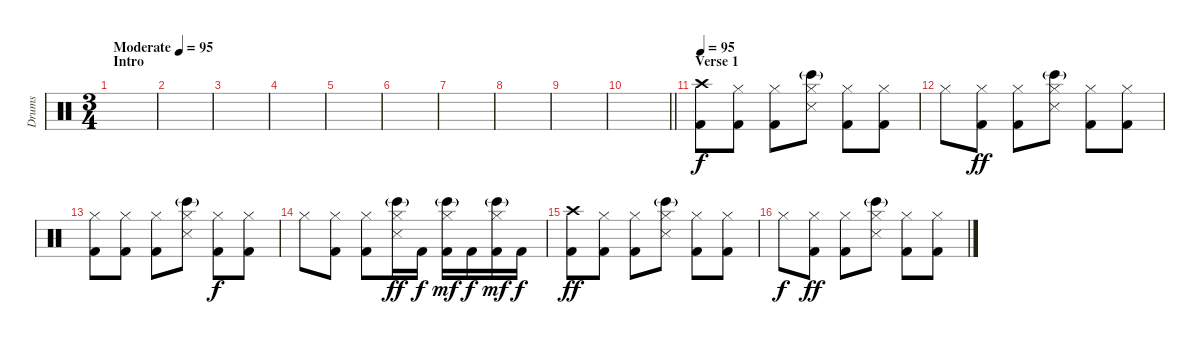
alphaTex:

\track ("Drums" "Drums") {instrument percussion}
\staff {score}
\articulation defaults
\ts (3 4)
\section ("" "Intro")
\tempo (95 "Moderate")
\tempo 80
\tempo (95 "Moderate")
\clef neutral
\ks c
|
|
|
|
|
|
|
|
|
\barLineRight lightlight
|
\section ("" "Verse 1")
\tempo 95
("Crash high (hit)" "Kick (hit) 2").8 ("Hi-Hat (closed)" "Kick (hit) 2").8 ("Hi-Hat (closed)" "Kick (hit) 2").8 ("Hi-Hat (closed)" "Bongo High (hit)"{g} "Snare (side stick) 3").8 ("Hi-Hat (closed)" "Kick (hit) 2").8 ("Hi-Hat (closed)" "Kick (hit) 2").8 |
"Hi-Hat (closed)".8{dy f} ("Hi-Hat (closed)" "Kick (hit) 2").8{dy ff} ("Hi-Hat (closed)" "Kick (hit) 2").8 ("Hi-Hat (closed)" "Bongo High (hit)"{g} "Snare (side stick) 3").8 ("Hi-Hat (closed)" "Kick (hit) 2").8 ("Hi-Hat (closed)" "Kick (hit) 2").8 |
("Hi-Hat (closed)" "Kick (hit) 2").8 ("Hi-Hat (closed)" "Kick (hit) 2").8 ("Hi-Hat (closed)" "Kick (hit) 2").8 ("Hi-Hat (closed)" "Bongo High (hit)"{g} "Snare (side stick) 3").8 ("Hi-Hat (closed)" "Kick (hit) 2").8{dy f} ("Hi-Hat (closed)" "Kick (hit) 2").8 |
"Hi-Hat (closed)".8 ("Hi-Hat (closed)" "Kick (hit) 2").8 ("Hi-Hat (closed)" "Kick (hit) 2").8 ("Hi-Hat (closed)" "Bongo High (hit)"{g} "Snare (side stick) 3").16{dy ff} "Kick (hit) 2".16{dy f} ("Hi-Hat (closed)" "Bongo High (hit)"{g} "Kick (hit) 2").16{dy mf} "Kick (hit) 2".16{dy f} ("Hi-Hat (closed)" "Bongo High (hit)"{g} "Kick (hit) 2").16{dy mf} "Kick (hit) 2".16{dy f} |
("Crash high (hit)" "Kick (hit) 2").8{dy ff} ("Hi-Hat (closed)" "Kick (hit) 2").8 ("Hi-Hat (closed)" "Kick (hit) 2").8 ("Hi-Hat (closed)" "Bongo High (hit)"{g} "Snare (side stick) 3").8 ("Hi-Hat (closed)" "Kick (hit) 2").8 ("Hi-Hat (closed)" "Kick (hit) 2").8 |
"Hi-Hat (closed)".8{dy f} ("Hi-Hat (closed)" "Kick (hit) 2").8{dy ff} ("Hi-Hat (closed)" "Kick (hit) 2").8 ("Hi-Hat (closed)" "Bongo High (hit)"{g} "Snare (side stick) 3").8 ("Hi-Hat (closed)" "Kick (hit) 2").8 ("Hi-Hat (closed)" "Kick (hit) 2").8
